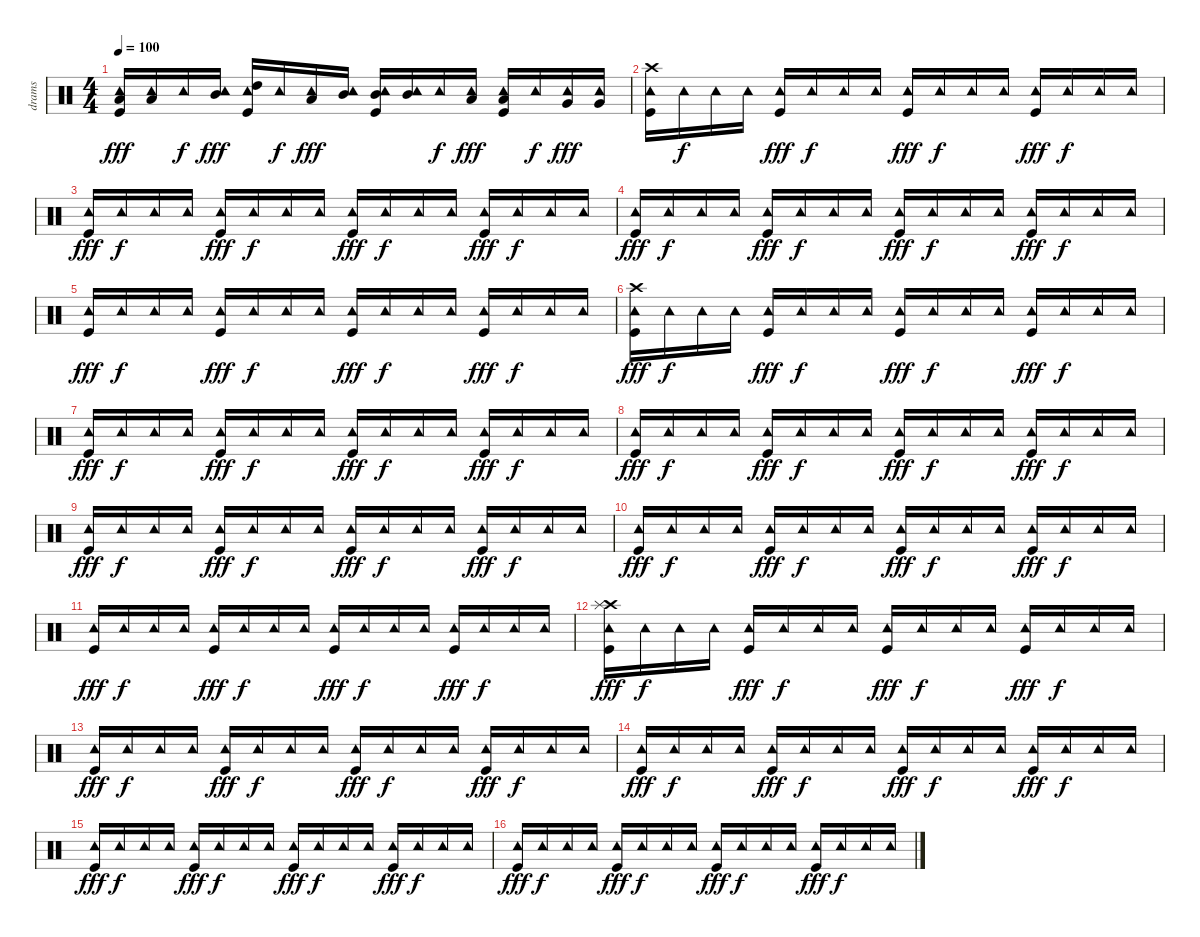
\track ("drams" "drams") {instrument percussion}
\staff {score}
\articulation defaults
\ts (4 4)
\tempo 100
\clef neutral
\ks c
("Kick (hit)" "Low Floor Tom (hit)" "Tambourine (hit)").16{dy fff} ("Low Floor Tom (hit)" "Tambourine (hit)").16 "Tambourine (hit)".16{dy f} ("Mid Tom (hit)" "Tambourine (hit)").16{dy fff} ("Kick (hit)" "High Tom (hit)" "Tambourine (hit)").16 "Tambourine (hit)".16{dy f} ("Low Tom (hit)" "Tambourine (hit)").16{dy fff} ("Mid Tom (hit)" "Tambourine (hit)").16 ("Kick (hit)" "Mid Tom (hit)" "Tambourine (hit)").16 ("Mid Tom (hit)" "Tambourine (hit)").16 "Tambourine (hit)".16{dy f} ("Low Tom (hit)" "Tambourine (hit)").16{dy fff} ("Kick (hit)" "Low Floor Tom (hit)" "Tambourine (hit)").16 "Tambourine (hit)".16{dy f} ("Very Low Tom (hit)" "Tambourine (hit)").16{dy fff} ("Very Low Tom (hit)" "Tambourine (hit)").16 |
("Kick (hit)" "Crash high (hit)" "Tambourine (hit)").16 "Tambourine (hit)".16{dy f} "Tambourine (hit)".16 "Tambourine (hit)".16 ("Kick (hit)" "Tambourine (hit)").16{dy fff} "Tambourine (hit)".16{dy f} "Tambourine (hit)".16 "Tambourine (hit)".16 ("Kick (hit)" "Tambourine (hit)").16{dy fff} "Tambourine (hit)".16{dy f} "Tambourine (hit)".16 "Tambourine (hit)".16 ("Kick (hit)" "Tambourine (hit)").16{dy fff} "Tambourine (hit)".16{dy f} "Tambourine (hit)".16 "Tambourine (hit)".16 |
("Kick (hit)" "Tambourine (hit)").16{dy fff} "Tambourine (hit)".16{dy f} "Tambourine (hit)".16 "Tambourine (hit)".16 ("Kick (hit)" "Tambourine (hit)").16{dy fff} "Tambourine (hit)".16{dy f} "Tambourine (hit)".16 "Tambourine (hit)".16 ("Kick (hit)" "Tambourine (hit)").16{dy fff} "Tambourine (hit)".16{dy f} "Tambourine (hit)".16 "Tambourine (hit)".16 ("Kick (hit)" "Tambourine (hit)").16{dy fff} "Tambourine (hit)".16{dy f} "Tambourine (hit)".16 "Tambourine (hit)".16 |
("Kick (hit)" "Tambourine (hit)").16{dy fff} "Tambourine (hit)".16{dy f} "Tambourine (hit)".16 "Tambourine (hit)".16 ("Kick (hit)" "Tambourine (hit)").16{dy fff} "Tambourine (hit)".16{dy f} "Tambourine (hit)".16 "Tambourine (hit)".16 ("Kick (hit)" "Tambourine (hit)").16{dy fff} "Tambourine (hit)".16{dy f} "Tambourine (hit)".16 "Tambourine (hit)".16 ("Kick (hit)" "Tambourine (hit)").16{dy fff} "Tambourine (hit)".16{dy f} "Tambourine (hit)".16 "Tambourine (hit)".16 |
("Kick (hit)" "Tambourine (hit)").16{dy fff} "Tambourine (hit)".16{dy f} "Tambourine (hit)".16 "Tambourine (hit)".16 ("Kick (hit)" "Tambourine (hit)").16{dy fff} "Tambourine (hit)".16{dy f} "Tambourine (hit)".16 "Tambourine (hit)".16 ("Kick (hit)" "Tambourine (hit)").16{dy fff} "Tambourine (hit)".16{dy f} "Tambourine (hit)".16 "Tambourine (hit)".16 ("Kick (hit)" "Tambourine (hit)").16{dy fff} "Tambourine (hit)".16{dy f} "Tambourine (hit)".16 "Tambourine (hit)".16 |
("Kick (hit)" "Crash high (hit)" "Tambourine (hit)").16{dy fff} "Tambourine (hit)".16{dy f} "Tambourine (hit)".16 "Tambourine (hit)".16 ("Kick (hit)" "Tambourine (hit)").16{dy fff} "Tambourine (hit)".16{dy f} "Tambourine (hit)".16 "Tambourine (hit)".16 ("Kick (hit)" "Tambourine (hit)").16{dy fff} "Tambourine (hit)".16{dy f} "Tambourine (hit)".16 "Tambourine (hit)".16 ("Kick (hit)" "Tambourine (hit)").16{dy fff} "Tambourine (hit)".16{dy f} "Tambourine (hit)".16 "Tambourine (hit)".16 |
("Kick (hit)" "Tambourine (hit)").16{dy fff} "Tambourine (hit)".16{dy f} "Tambourine (hit)".16 "Tambourine (hit)".16 ("Kick (hit)" "Tambourine (hit)").16{dy fff} "Tambourine (hit)".16{dy f} "Tambourine (hit)".16 "Tambourine (hit)".16 ("Kick (hit)" "Tambourine (hit)").16{dy fff} "Tambourine (hit)".16{dy f} "Tambourine (hit)".16 "Tambourine (hit)".16 ("Kick (hit)" "Tambourine (hit)").16{dy fff} "Tambourine (hit)".16{dy f} "Tambourine (hit)".16 "Tambourine (hit)".16 |
("Kick (hit)" "Tambourine (hit)").16{dy fff} "Tambourine (hit)".16{dy f} "Tambourine (hit)".16 "Tambourine (hit)".16 ("Kick (hit)" "Tambourine (hit)").16{dy fff} "Tambourine (hit)".16{dy f} "Tambourine (hit)".16 "Tambourine (hit)".16 ("Kick (hit)" "Tambourine (hit)").16{dy fff} "Tambourine (hit)".16{dy f} "Tambourine (hit)".16 "Tambourine (hit)".16 ("Kick (hit)" "Tambourine (hit)").16{dy fff} "Tambourine (hit)".16{dy f} "Tambourine (hit)".16 "Tambourine (hit)".16 |
("Kick (hit)" "Tambourine (hit)").16{dy fff} "Tambourine (hit)".16{dy f} "Tambourine (hit)".16 "Tambourine (hit)".16 ("Kick (hit)" "Tambourine (hit)").16{dy fff} "Tambourine (hit)".16{dy f} "Tambourine (hit)".16 "Tambourine (hit)".16 ("Kick (hit)" "Tambourine (hit)").16{dy fff} "Tambourine (hit)".16{dy f} "Tambourine (hit)".16 "Tambourine (hit)".16 ("Kick (hit)" "Tambourine (hit)").16{dy fff} "Tambourine (hit)".16{dy f} "Tambourine (hit)".16 "Tambourine (hit)".16 |
("Kick (hit)" "Tambourine (hit)").16{dy fff} "Tambourine (hit)".16{dy f} "Tambourine (hit)".16 "Tambourine (hit)".16 ("Kick (hit)" "Tambourine (hit)").16{dy fff} "Tambourine (hit)".16{dy f} "Tambourine (hit)".16 "Tambourine (hit)".16 ("Kick (hit)" "Tambourine (hit)").16{dy fff} "Tambourine (hit)".16{dy f} "Tambourine (hit)".16 "Tambourine (hit)".16 ("Kick (hit)" "Tambourine (hit)").16{dy fff} "Tambourine (hit)".16{dy f} "Tambourine (hit)".16 "Tambourine (hit)".16 |
("Kick (hit)" "Tambourine (hit)").16{dy fff} "Tambourine (hit)".16{dy f} "Tambourine (hit)".16 "Tambourine (hit)".16 ("Kick (hit)" "Tambourine (hit)").16{dy fff} "Tambourine (hit)".16{dy f} "Tambourine (hit)".16 "Tambourine (hit)".16 ("Kick (hit)" "Tambourine (hit)").16{dy fff} "Tambourine (hit)".16{dy f} "Tambourine (hit)".16 "Tambourine (hit)".16 ("Kick (hit)" "Tambourine (hit)").16{dy fff} "Tambourine (hit)".16{dy f} "Tambourine (hit)".16 "Tambourine (hit)".16 |
("Kick (hit)" "Crash high (hit)" "Tambourine (hit)" "Splash (hit)").16{dy fff} "Tambourine (hit)".16{dy f} "Tambourine (hit)".16 "Tambourine (hit)".16 ("Kick (hit)" "Tambourine (hit)").16{dy fff} "Tambourine (hit)".16{dy f} "Tambourine (hit)".16 "Tambourine (hit)".16 ("Kick (hit)" "Tambourine (hit)").16{dy fff} "Tambourine (hit)".16{dy f} "Tambourine (hit)".16 "Tambourine (hit)".16 ("Kick (hit)" "Tambourine (hit)").16{dy fff} "Tambourine (hit)".16{dy f} "Tambourine (hit)".16 "Tambourine (hit)".16 |
("Kick (hit)" "Tambourine (hit)").16{dy fff} "Tambourine (hit)".16{dy f} "Tambourine (hit)".16 "Tambourine (hit)".16 ("Kick (hit)" "Tambourine (hit)").16{dy fff} "Tambourine (hit)".16{dy f} "Tambourine (hit)".16 "Tambourine (hit)".16 ("Kick (hit)" "Tambourine (hit)").16{dy fff} "Tambourine (hit)".16{dy f} "Tambourine (hit)".16 "Tambourine (hit)".16 ("Kick (hit)" "Tambourine (hit)").16{dy fff} "Tambourine (hit)".16{dy f} "Tambourine (hit)".16 "Tambourine (hit)".16 |
("Kick (hit)" "Tambourine (hit)").16{dy fff} "Tambourine (hit)".16{dy f} "Tambourine (hit)".16 "Tambourine (hit)".16 ("Kick (hit)" "Tambourine (hit)").16{dy fff} "Tambourine (hit)".16{dy f} "Tambourine (hit)".16 "Tambourine (hit)".16 ("Kick (hit)" "Tambourine (hit)").16{dy fff} "Tambourine (hit)".16{dy f} "Tambourine (hit)".16 "Tambourine (hit)".16 ("Kick (hit)" "Tambourine (hit)").16{dy fff} "Tambourine (hit)".16{dy f} "Tambourine (hit)".16 "Tambourine (hit)".16 |
("Kick (hit)" "Tambourine (hit)").16{dy fff} "Tambourine (hit)".16{dy f} "Tambourine (hit)".16 "Tambourine (hit)".16 ("Kick (hit)" "Tambourine (hit)").16{dy fff} "Tambourine (hit)".16{dy f} "Tambourine (hit)".16 "Tambourine (hit)".16 ("Kick (hit)" "Tambourine (hit)").16{dy fff} "Tambourine (hit)".16{dy f} "Tambourine (hit)".16 "Tambourine (hit)".16 ("Kick (hit)" "Tambourine (hit)").16{dy fff} "Tambourine (hit)".16{dy f} "Tambourine (hit)".16 "Tambourine (hit)".16 |
("Kick (hit)" "Tambourine (hit)").16{dy fff} "Tambourine (hit)".16{dy f} "Tambourine (hit)".16 "Tambourine (hit)".16 ("Kick (hit)" "Tambourine (hit)").16{dy fff} "Tambourine (hit)".16{dy f} "Tambourine (hit)".16 "Tambourine (hit)".16 ("Kick (hit)" "Tambourine (hit)").16{dy fff} "Tambourine (hit)".16{dy f} "Tambourine (hit)".16 "Tambourine (hit)".16 ("Kick (hit)" "Tambourine (hit)").16{dy fff} "Tambourine (hit)".16{dy f} "Tambourine (hit)".16 "Tambourine (hit)".16
